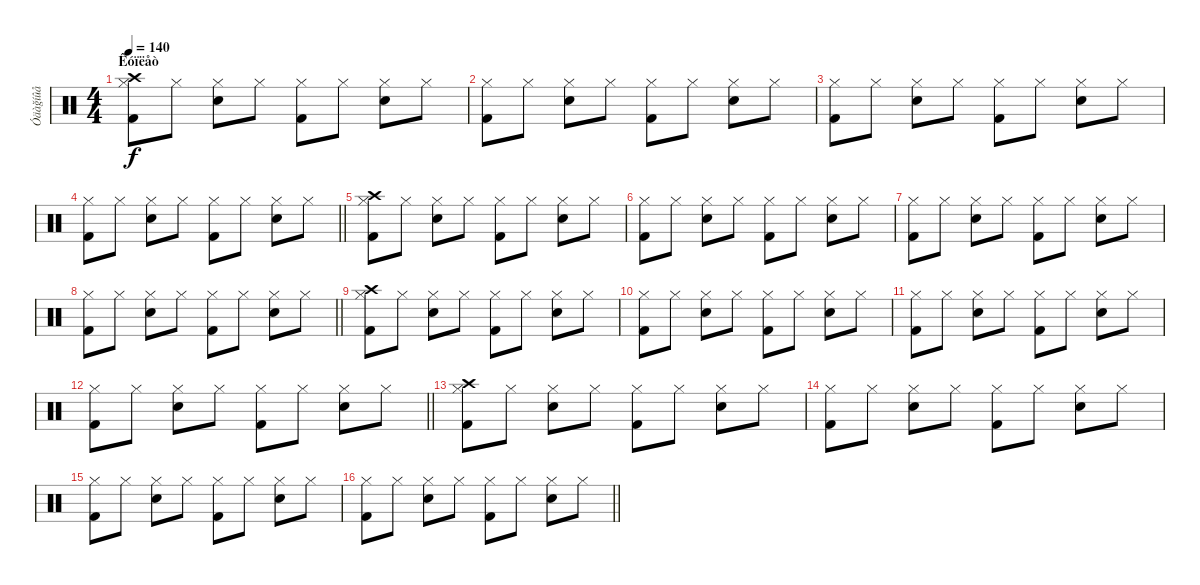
\track ("Óäàğíûå" "Óäàğíûå") {instrument percussion}
\staff {score}
\articulation defaults
\ts (4 4)
\section ("" "Êóïëåò")
\tempo 140
\clef neutral
\ks c
("Hi-Hat (closed)" "Kick (hit) 2" "Crash high (hit)").8{dy f} "Hi-Hat (closed)".8 ("Hi-Hat (closed)" "Snare (hit) 2").8 "Hi-Hat (closed)".8 ("Hi-Hat (closed)" "Kick (hit) 2").8 "Hi-Hat (closed)".8 ("Hi-Hat (closed)" "Snare (hit) 2").8 "Hi-Hat (closed)".8 |
("Hi-Hat (closed)" "Kick (hit) 2").8 "Hi-Hat (closed)".8 ("Hi-Hat (closed)" "Snare (hit) 2").8 "Hi-Hat (closed)".8 ("Hi-Hat (closed)" "Kick (hit) 2").8 "Hi-Hat (closed)".8 ("Hi-Hat (closed)" "Snare (hit) 2").8 "Hi-Hat (closed)".8 |
("Hi-Hat (closed)" "Kick (hit) 2").8 "Hi-Hat (closed)".8 ("Hi-Hat (closed)" "Snare (hit) 2").8 "Hi-Hat (closed)".8 ("Hi-Hat (closed)" "Kick (hit) 2").8 "Hi-Hat (closed)".8 ("Hi-Hat (closed)" "Snare (hit) 2").8 "Hi-Hat (closed)".8 |
\barLineRight lightlight
("Hi-Hat (closed)" "Kick (hit) 2").8 "Hi-Hat (closed)".8 ("Hi-Hat (closed)" "Snare (hit) 2").8 "Hi-Hat (closed)".8 ("Hi-Hat (closed)" "Kick (hit) 2").8 "Hi-Hat (closed)".8 ("Hi-Hat (closed)" "Snare (hit) 2").8 "Hi-Hat (closed)".8 |
("Hi-Hat (closed)" "Kick (hit) 2" "Crash high (hit)").8 "Hi-Hat (closed)".8 ("Hi-Hat (closed)" "Snare (hit) 2").8 "Hi-Hat (closed)".8 ("Hi-Hat (closed)" "Kick (hit) 2").8 "Hi-Hat (closed)".8 ("Hi-Hat (closed)" "Snare (hit) 2").8 "Hi-Hat (closed)".8 |
("Hi-Hat (closed)" "Kick (hit) 2").8 "Hi-Hat (closed)".8 ("Hi-Hat (closed)" "Snare (hit) 2").8 "Hi-Hat (closed)".8 ("Hi-Hat (closed)" "Kick (hit) 2").8 "Hi-Hat (closed)".8 ("Hi-Hat (closed)" "Snare (hit) 2").8 "Hi-Hat (closed)".8 |
("Hi-Hat (closed)" "Kick (hit) 2").8 "Hi-Hat (closed)".8 ("Hi-Hat (closed)" "Snare (hit) 2").8 "Hi-Hat (closed)".8 ("Hi-Hat (closed)" "Kick (hit) 2").8 "Hi-Hat (closed)".8 ("Hi-Hat (closed)" "Snare (hit) 2").8 "Hi-Hat (closed)".8 |
\barLineRight lightlight
("Hi-Hat (closed)" "Kick (hit) 2").8 "Hi-Hat (closed)".8 ("Hi-Hat (closed)" "Snare (hit) 2").8 "Hi-Hat (closed)".8 ("Hi-Hat (closed)" "Kick (hit) 2").8 "Hi-Hat (closed)".8 ("Hi-Hat (closed)" "Snare (hit) 2").8 "Hi-Hat (closed)".8 |
("Hi-Hat (closed)" "Kick (hit) 2" "Crash high (hit)").8 "Hi-Hat (closed)".8 ("Hi-Hat (closed)" "Snare (hit) 2").8 "Hi-Hat (closed)".8 ("Hi-Hat (closed)" "Kick (hit) 2").8 "Hi-Hat (closed)".8 ("Hi-Hat (closed)" "Snare (hit) 2").8 "Hi-Hat (closed)".8 |
("Hi-Hat (closed)" "Kick (hit) 2").8 "Hi-Hat (closed)".8 ("Hi-Hat (closed)" "Snare (hit) 2").8 "Hi-Hat (closed)".8 ("Hi-Hat (closed)" "Kick (hit) 2").8 "Hi-Hat (closed)".8 ("Hi-Hat (closed)" "Snare (hit) 2").8 "Hi-Hat (closed)".8 |
("Hi-Hat (closed)" "Kick (hit) 2").8 "Hi-Hat (closed)".8 ("Hi-Hat (closed)" "Snare (hit) 2").8 "Hi-Hat (closed)".8 ("Hi-Hat (closed)" "Kick (hit) 2").8 "Hi-Hat (closed)".8 ("Hi-Hat (closed)" "Snare (hit) 2").8 "Hi-Hat (closed)".8 |
\barLineRight lightlight
("Hi-Hat (closed)" "Kick (hit) 2").8 "Hi-Hat (closed)".8 ("Hi-Hat (closed)" "Snare (hit) 2").8 "Hi-Hat (closed)".8 ("Hi-Hat (closed)" "Kick (hit) 2").8 "Hi-Hat (closed)".8 ("Hi-Hat (closed)" "Snare (hit) 2").8 "Hi-Hat (closed)".8 |
("Hi-Hat (closed)" "Kick (hit) 2" "Crash high (hit)").8 "Hi-Hat (closed)".8 ("Hi-Hat (closed)" "Snare (hit) 2").8 "Hi-Hat (closed)".8 ("Hi-Hat (closed)" "Kick (hit) 2").8 "Hi-Hat (closed)".8 ("Hi-Hat (closed)" "Snare (hit) 2").8 "Hi-Hat (closed)".8 |
("Hi-Hat (closed)" "Kick (hit) 2").8 "Hi-Hat (closed)".8 ("Hi-Hat (closed)" "Snare (hit) 2").8 "Hi-Hat (closed)".8 ("Hi-Hat (closed)" "Kick (hit) 2").8 "Hi-Hat (closed)".8 ("Hi-Hat (closed)" "Snare (hit) 2").8 "Hi-Hat (closed)".8 |
("Hi-Hat (closed)" "Kick (hit) 2").8 "Hi-Hat (closed)".8 ("Hi-Hat (closed)" "Snare (hit) 2").8 "Hi-Hat (closed)".8 ("Hi-Hat (closed)" "Kick (hit) 2").8 "Hi-Hat (closed)".8 ("Hi-Hat (closed)" "Snare (hit) 2").8 "Hi-Hat (closed)".8 |
\barLineRight lightlight
("Hi-Hat (closed)" "Kick (hit) 2").8 "Hi-Hat (closed)".8 ("Hi-Hat (closed)" "Snare (hit) 2").8 "Hi-Hat (closed)".8 ("Hi-Hat (closed)" "Kick (hit) 2").8 "Hi-Hat (closed)".8 ("Hi-Hat (closed)" "Snare (hit) 2").8 "Hi-Hat (closed)".8
